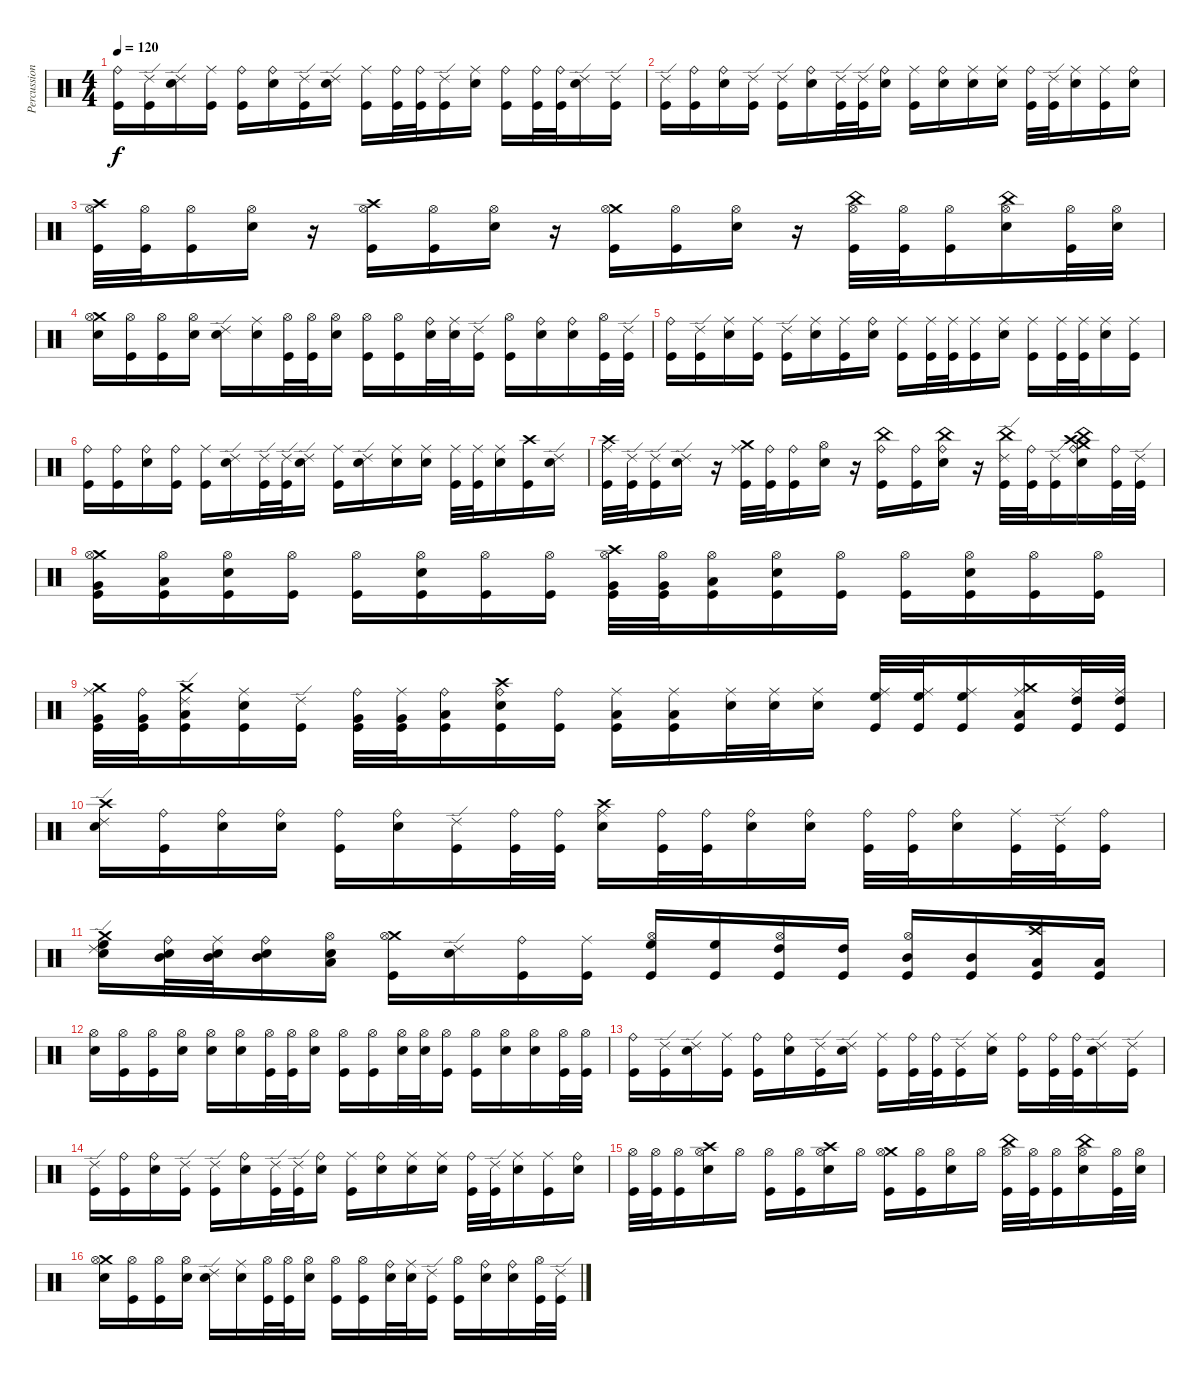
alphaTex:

\track ("Percussion" "Percussion") {instrument percussion}
\staff {score}
\articulation defaults
\ts (4 4)
\tempo 120
\clef neutral
\ks c
("Ride (bell)" "Kick (hit)").16{dy f} ("Ride (edge) 2" "Kick (hit)").16 ("Ride (edge) 2" "Snare (hit) 2").16 ("Ride (middle)" "Kick (hit)").16 ("Ride (bell)" "Kick (hit)").16 ("Ride (bell)" "Snare (hit) 2").16 ("Ride (edge) 2" "Kick (hit)").16 ("Ride (edge) 2" "Snare (hit) 2").16 ("Ride (middle)" "Kick (hit)").16 ("Ride (bell)" "Kick (hit)").32 ("Ride (bell)" "Kick (hit)").32 ("Ride (edge) 2" "Kick (hit)").16 ("Ride (middle)" "Snare (hit) 2").16 ("Ride (bell)" "Kick (hit)").16 ("Ride (bell)" "Kick (hit)").32 ("Ride (bell)" "Kick (hit)").32 ("Ride (edge) 2" "Snare (hit) 2").16 ("Ride (edge) 2" "Kick (hit)").16 |
("Ride (edge) 2" "Kick (hit)").16 ("Ride (bell)" "Kick (hit)").16 ("Ride (bell)" "Snare (hit) 2").16 ("Ride (edge) 2" "Kick (hit)").16 ("Ride (edge) 2" "Kick (hit)").16 ("Ride (bell)" "Snare (hit) 2").16 ("Ride (edge) 2" "Kick (hit)").32 ("Ride (edge) 2" "Kick (hit)").32 ("Ride (bell)" "Snare (hit) 2").16 ("Ride (middle)" "Kick (hit)").16 ("Ride (bell)" "Snare (hit) 2").16 ("Ride (middle)" "Snare (hit) 2").16 ("Ride (middle)" "Snare (hit) 2").16 ("Ride (bell)" "Kick (hit)").32 ("Ride (edge) 2" "Kick (hit)").32 ("Ride (middle)" "Snare (hit) 2").16 ("Ride (middle)" "Kick (hit)").16 ("Ride (bell)" "Snare (hit) 2").16 |
("Crash high (hit)" "Hi-Hat (open)" "Kick (hit)").32 ("Hi-Hat (open)" "Kick (hit)").32 ("Hi-Hat (open)" "Kick (hit)").16 ("Hi-Hat (open)" "Snare (hit) 2").16 r.16 ("Crash high (hit)" "Hi-Hat (open)" "Kick (hit)").16 ("Hi-Hat (open)" "Kick (hit)").16 ("Hi-Hat (open)" "Snare (hit) 2").16 r.16 ("Crash medium (hit)" "Hi-Hat (open)" "Kick (hit)").16 ("Hi-Hat (open)" "Kick (hit)").16 ("Hi-Hat (open)" "Snare (hit) 2").16 r.16 ("China (hit)" "Hi-Hat (open)" "Kick (hit)").32 ("Hi-Hat (open)" "Kick (hit)").32 ("Hi-Hat (open)" "Kick (hit)").16 ("China (hit)" "Hi-Hat (open)" "Snare (hit) 2").16 ("Hi-Hat (open)" "Kick (hit)").32 ("Hi-Hat (open)" "Snare (hit) 2").32 |
("Crash medium (hit)" "Hi-Hat (open)" "Snare (hit) 2").16 ("Hi-Hat (open)" "Kick (hit)").16 ("Hi-Hat (open)" "Kick (hit)").16 ("Hi-Hat (open)" "Snare (hit) 2").16 ("Ride (edge) 2" "Snare (hit) 2").16 ("Ride (middle)" "Snare (hit) 2").16 ("Hi-Hat (open)" "Kick (hit)").32 ("Hi-Hat (open)" "Kick (hit)").32 ("Hi-Hat (open)" "Snare (hit) 2").16 ("Hi-Hat (open)" "Kick (hit)").16 ("Hi-Hat (open)" "Kick (hit)").16 ("Ride (bell)" "Snare (hit) 2").32 ("Ride (middle)" "Snare (hit) 2").32 ("Ride (edge) 2" "Kick (hit)").16 ("Hi-Hat (open)" "Kick (hit)").16 ("Ride (bell)" "Snare (hit) 2").16 ("Ride (bell)" "Snare (hit) 2").16 ("Hi-Hat (open)" "Kick (hit)").32 ("Ride (edge) 2" "Kick (hit)").32 |
("Ride (bell)" "Kick (hit)").16 ("Ride (edge) 2" "Kick (hit)").16 ("Ride (middle)" "Snare (hit) 2").16 ("Ride (middle)" "Kick (hit)").16 ("Ride (edge) 2" "Kick (hit)").16 ("Ride (middle)" "Snare (hit) 2").16 ("Ride (middle)" "Kick (hit)").16 ("Ride (bell)" "Snare (hit) 2").16 ("Ride (middle)" "Kick (hit)").16 ("Ride (middle)" "Kick (hit)").32 ("Ride (middle)" "Kick (hit)").32 ("Ride (middle)" "Kick (hit)").16 ("Ride (middle)" "Snare (hit) 2").16 ("Ride (middle)" "Kick (hit)").16 ("Ride (middle)" "Kick (hit)").32 ("Ride (middle)" "Kick (hit)").32 ("Ride (middle)" "Snare (hit) 2").16 ("Ride (middle)" "Kick (hit)").16 |
("Ride (bell)" "Kick (hit)").16 ("Ride (bell)" "Kick (hit)").16 ("Ride (bell)" "Snare (hit) 2").16 ("Ride (bell)" "Kick (hit)").16 ("Ride (middle)" "Kick (hit)").16 ("Ride (edge) 2" "Snare (hit) 2").16 ("Ride (edge) 2" "Kick (hit)").32 ("Ride (edge) 2" "Kick (hit)").32 ("Ride (edge) 2" "Snare (hit) 2").16 ("Ride (middle)" "Kick (hit)").16 ("Ride (edge) 2" "Snare (hit) 2").16 ("Ride (middle)" "Snare (hit) 2").16 ("Ride (middle)" "Snare (hit) 2").16 ("Ride (middle)" "Kick (hit)").32 ("Ride (middle)" "Kick (hit)").32 ("Ride (middle)" "Snare (hit) 2").16 ("Crash high (hit)" "Kick (hit)").16 ("Ride (edge) 2" "Snare (hit) 2").16 |
("Crash high (hit)" "Ride (middle)" "Kick (hit)").32 ("Ride (edge) 2" "Kick (hit)").32 ("Ride (edge) 2" "Kick (hit)").16 ("Ride (edge) 2" "Snare (hit) 2").16 r.16 ("Crash medium (hit)" "Ride (middle)" "Kick (hit)").32 ("Ride (bell)" "Kick (hit)").32 ("Ride (bell)" "Kick (hit)").16 ("Hi-Hat (open)" "Snare (hit) 2").16 r.16 ("China (hit)" "Ride (bell)" "Kick (hit)").16 ("Ride (bell)" "Kick (hit)").16 ("China (hit)" "Ride (bell)" "Snare (hit) 2").16 r.16 ("China (hit)" "Ride (edge) 2" "Kick (hit)").32 ("Ride (bell)" "Kick (hit)").32 ("Ride (edge) 2" "Kick (hit)").16 ("China (hit)" "Crash medium (hit)" "Crash high (hit)" "Ride (bell)" "Snare (hit) 2").16 ("Ride (bell)" "Kick (hit)").32 ("Ride (edge) 2" "Kick (hit)").32 |
("Crash medium (hit)" "Hi-Hat (open)" "Very Low Tom (hit)" "Kick (hit)").16 ("Hi-Hat (open)" "Low Floor Tom (hit)" "Kick (hit)").16 ("Hi-Hat (open)" "Snare (hit) 2" "Kick (hit)").16 ("Hi-Hat (open)" "Kick (hit)").16 ("Hi-Hat (open)" "Kick (hit)").16 ("Hi-Hat (open)" "Snare (hit) 2" "Kick (hit)").16 ("Hi-Hat (open)" "Kick (hit)").16 ("Hi-Hat (open)" "Kick (hit)").16 ("Crash high (hit)" "Hi-Hat (open)" "Very Low Tom (hit)" "Kick (hit)").32 ("Hi-Hat (open)" "Very Low Tom (hit)" "Kick (hit)").32 ("Hi-Hat (open)" "Low Floor Tom (hit)" "Kick (hit)").16 ("Hi-Hat (open)" "Snare (hit) 2" "Kick (hit)").16 ("Hi-Hat (open)" "Kick (hit)").16 ("Hi-Hat (open)" "Kick (hit)").16 ("Hi-Hat (open)" "Snare (hit) 2" "Kick (hit)").16 ("Hi-Hat (open)" "Kick (hit)").16 ("Hi-Hat (open)" "Kick (hit)").16 |
("Crash medium (hit)" "Ride (middle)" "Very Low Tom (hit)" "Kick (hit)").32 ("Ride (bell)" "Very Low Tom (hit)" "Kick (hit)").32 ("Crash medium (hit)" "Ride (edge) 2" "Low Floor Tom (hit)" "Kick (hit)").16 ("Ride (middle)" "Snare (hit) 2" "Kick (hit)").16 ("Ride (edge) 2" "Kick (hit)").16 ("Ride (bell)" "Very Low Tom (hit)" "Kick (hit)").32 ("Ride (middle)" "Very Low Tom (hit)" "Kick (hit)").32 ("Ride (bell)" "Low Floor Tom (hit)" "Kick (hit)").16 ("Crash high (hit)" "Ride (bell)" "Snare (hit) 2" "Kick (hit)").16 ("Ride (bell)" "Kick (hit)").16 ("Ride (middle)" "Low Floor Tom (hit)" "Kick (hit)").16 ("Ride (middle)" "Low Floor Tom (hit)" "Kick (hit)").16 ("Ride (middle)" "Snare (hit) 2").32 ("Ride (middle)" "Snare (hit) 2").32 ("Ride (middle)" "Snare (hit) 2").16 ("Ride (middle)" "High Floor Tom (hit)" "Kick (hit)").32 ("Ride (middle)" "High Floor Tom (hit)" "Kick (hit)").32 ("Ride (middle)" "High Floor Tom (hit)" "Kick (hit)").16 ("Crash medium (hit)" "Ride (middle)" "Low Tom (hit)" "Kick (hit)").16 ("Ride (middle)" "High Tom (hit)" "Kick (hit)").32 ("Ride (middle)" "High Tom (hit)" "Kick (hit)").32 |
("Crash high (hit)" "Ride (edge) 2" "Snare (hit) 2").16 ("Ride (bell)" "Kick (hit)").16 ("Ride (bell)" "Snare (hit) 2").16 ("Ride (bell)" "Snare (hit) 2").16 ("Ride (bell)" "Kick (hit)").16 ("Ride (bell)" "Snare (hit) 2").16 ("Ride (edge) 2" "Kick (hit)").16 ("Ride (bell)" "Kick (hit)").32 ("Ride (bell)" "Kick (hit)").32 ("Crash high (hit)" "Ride (middle)" "Snare (hit) 2").16 ("Ride (bell)" "Kick (hit)").32 ("Ride (bell)" "Kick (hit)").32 ("Ride (bell)" "Snare (hit) 2").16 ("Ride (bell)" "Snare (hit) 2").16 ("Ride (bell)" "Kick (hit)").32 ("Ride (bell)" "Kick (hit)").32 ("Ride (bell)" "Snare (hit) 2").16 ("Ride (middle)" "Kick (hit)").32 ("Ride (edge) 2" "Kick (hit)").32 ("Ride (bell)" "Kick (hit)").16 |
("Crash medium (hit)" "Ride (edge) 2" "High Floor Tom (hit)" "Snare (hit) 2").16 ("Ride (bell)" "Mid Tom (hit)" "Snare (hit) 2").32 ("Ride (middle)" "Mid Tom (hit)" "Snare (hit) 2").32 ("Ride (bell)" "Mid Tom (hit)" "Snare (hit) 2").16 ("Hi-Hat (open)" "Low Tom (hit)" "Snare (hit) 2").16 ("Crash medium (hit)" "Hi-Hat (open)" "Kick (hit)").16 ("Ride (edge) 2" "Snare (hit) 2").16 ("Ride (bell)" "Kick (hit)").16 ("Ride (middle)" "Kick (hit)").16 ("Hi-Hat (open)" "High Floor Tom (hit)" "Kick (hit)").16 ("High Floor Tom (hit)" "Kick (hit)").16 ("Hi-Hat (open)" "High Tom (hit)" "Kick (hit)").16 ("High Tom (hit)" "Kick (hit)").16 ("Hi-Hat (open)" "Mid Tom (hit)" "Kick (hit)").16 ("Mid Tom (hit)" "Kick (hit)").16 ("Crash high (hit)" "Low Tom (hit)" "Kick (hit)").16 ("Low Tom (hit)" "Kick (hit)").16 |
("Hi-Hat (open)" "Snare (hit) 2").16 ("Hi-Hat (open)" "Kick (hit)").16 ("Hi-Hat (open)" "Kick (hit)").16 ("Hi-Hat (open)" "Snare (hit) 2").16 ("Hi-Hat (open)" "Snare (hit) 2").16 ("Hi-Hat (open)" "Snare (hit) 2").16 ("Hi-Hat (open)" "Kick (hit)").32 ("Hi-Hat (open)" "Kick (hit)").32 ("Hi-Hat (open)" "Snare (hit) 2").16 ("Hi-Hat (open)" "Kick (hit)").16 ("Hi-Hat (open)" "Kick (hit)").16 ("Hi-Hat (open)" "Snare (hit) 2").32 ("Hi-Hat (open)" "Snare (hit) 2").32 ("Hi-Hat (open)" "Kick (hit)").16 ("Hi-Hat (open)" "Kick (hit)").16 ("Hi-Hat (open)" "Snare (hit) 2").16 ("Hi-Hat (open)" "Snare (hit) 2").16 ("Hi-Hat (open)" "Kick (hit)").32 ("Hi-Hat (open)" "Kick (hit)").32 |
("Ride (bell)" "Kick (hit)").16 ("Ride (edge) 2" "Kick (hit)").16 ("Ride (edge) 2" "Snare (hit) 2").16 ("Ride (middle)" "Kick (hit)").16 ("Ride (bell)" "Kick (hit)").16 ("Ride (bell)" "Snare (hit) 2").16 ("Ride (edge) 2" "Kick (hit)").16 ("Ride (edge) 2" "Snare (hit) 2").16 ("Ride (middle)" "Kick (hit)").16 ("Ride (bell)" "Kick (hit)").32 ("Ride (bell)" "Kick (hit)").32 ("Ride (edge) 2" "Kick (hit)").16 ("Ride (middle)" "Snare (hit) 2").16 ("Ride (bell)" "Kick (hit)").16 ("Ride (bell)" "Kick (hit)").32 ("Ride (bell)" "Kick (hit)").32 ("Ride (edge) 2" "Snare (hit) 2").16 ("Ride (edge) 2" "Kick (hit)").16 |
("Ride (edge) 2" "Kick (hit)").16 ("Ride (bell)" "Kick (hit)").16 ("Ride (bell)" "Snare (hit) 2").16 ("Ride (edge) 2" "Kick (hit)").16 ("Ride (edge) 2" "Kick (hit)").16 ("Ride (bell)" "Snare (hit) 2").16 ("Ride (edge) 2" "Kick (hit)").32 ("Ride (edge) 2" "Kick (hit)").32 ("Ride (bell)" "Snare (hit) 2").16 ("Ride (middle)" "Kick (hit)").16 ("Ride (bell)" "Snare (hit) 2").16 ("Ride (middle)" "Snare (hit) 2").16 ("Ride (middle)" "Snare (hit) 2").16 ("Ride (bell)" "Kick (hit)").32 ("Ride (edge) 2" "Kick (hit)").32 ("Ride (middle)" "Snare (hit) 2").16 ("Ride (middle)" "Kick (hit)").16 ("Ride (bell)" "Snare (hit) 2").16 |
("Hi-Hat (open)" "Kick (hit)").32 ("Hi-Hat (open)" "Kick (hit)").32 ("Hi-Hat (open)" "Kick (hit)").16 ("Crash high (hit)" "Hi-Hat (open)" "Snare (hit) 2").16 "Hi-Hat (open)".16 ("Hi-Hat (open)" "Kick (hit)").16 ("Hi-Hat (open)" "Kick (hit)").16 ("Crash high (hit)" "Hi-Hat (open)" "Snare (hit) 2").16 "Hi-Hat (open)".16 ("Crash medium (hit)" "Hi-Hat (open)" "Kick (hit)").16 ("Hi-Hat (open)" "Kick (hit)").16 ("Hi-Hat (open)" "Snare (hit) 2").16 "Hi-Hat (open)".16 ("China (hit)" "Hi-Hat (open)" "Kick (hit)").32 ("Hi-Hat (open)" "Kick (hit)").32 ("Hi-Hat (open)" "Kick (hit)").16 ("China (hit)" "Hi-Hat (open)" "Snare (hit) 2").16 ("Hi-Hat (open)" "Kick (hit)").32 ("Hi-Hat (open)" "Snare (hit) 2").32 |
("Crash medium (hit)" "Hi-Hat (open)" "Snare (hit) 2").16 ("Hi-Hat (open)" "Kick (hit)").16 ("Hi-Hat (open)" "Kick (hit)").16 ("Hi-Hat (open)" "Snare (hit) 2").16 ("Ride (edge) 2" "Snare (hit) 2").16 ("Ride (middle)" "Snare (hit) 2").16 ("Hi-Hat (open)" "Kick (hit)").32 ("Hi-Hat (open)" "Kick (hit)").32 ("Hi-Hat (open)" "Snare (hit) 2").16 ("Hi-Hat (open)" "Kick (hit)").16 ("Hi-Hat (open)" "Kick (hit)").16 ("Ride (bell)" "Snare (hit) 2").32 ("Ride (middle)" "Snare (hit) 2").32 ("Ride (edge) 2" "Kick (hit)").16 ("Hi-Hat (open)" "Kick (hit)").16 ("Ride (bell)" "Snare (hit) 2").16 ("Ride (bell)" "Snare (hit) 2").16 ("Hi-Hat (open)" "Kick (hit)").32 ("Ride (edge) 2" "Kick (hit)").32
